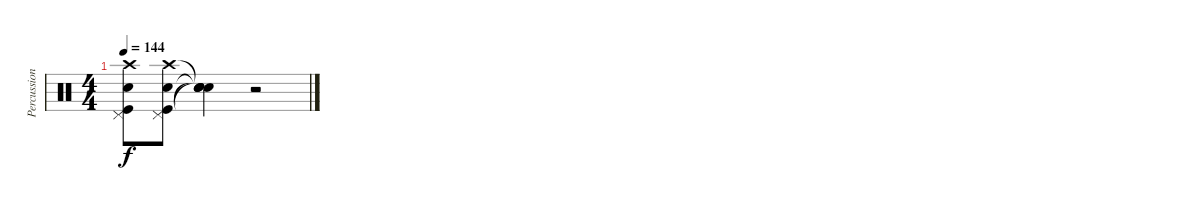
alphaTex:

\track ("Percussion" "Percussion") {instrument percussion}
\staff {score}
\articulation defaults
\ts (4 4)
\tempo 144
\clef neutral
\ks c
("Crash high (hit)" "Kick (hit)" "Snare (hit) 2" "Pedal Hi-Hat (hit)").8{dy f} ("Crash high (hit)" "Kick (hit)" "Snare (hit) 2" "Pedal Hi-Hat (hit)").8 ("Snare (hit)"{t} "Snare (hit)"{t} "Snare (hit)"{t} "Snare (hit)"{t}).4 r.2
